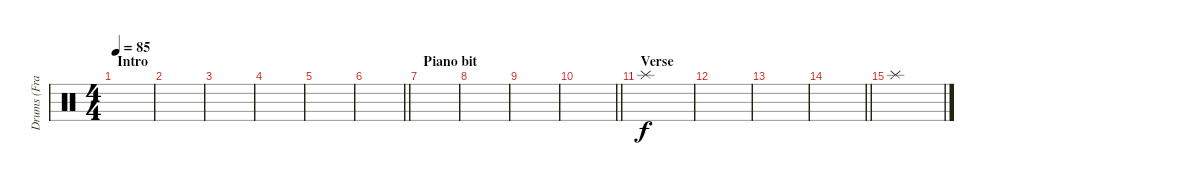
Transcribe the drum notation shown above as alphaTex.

\track ("Drums (Frank Ferrer)" "Drums (Fra") {instrument percussion}
\staff {score}
\articulation defaults
\ts (4 4)
\section ("" "Intro")
\tempo 85
\clef neutral
\ks c
|
|
|
|
|
\barLineRight lightlight
|
\section ("" "Piano bit")
|
|
|
\barLineRight lightlight
|
\section ("" "Verse")
"Splash (hit)".1 |
|
|
\barLineRight lightlight
|
"Splash (hit)".1
